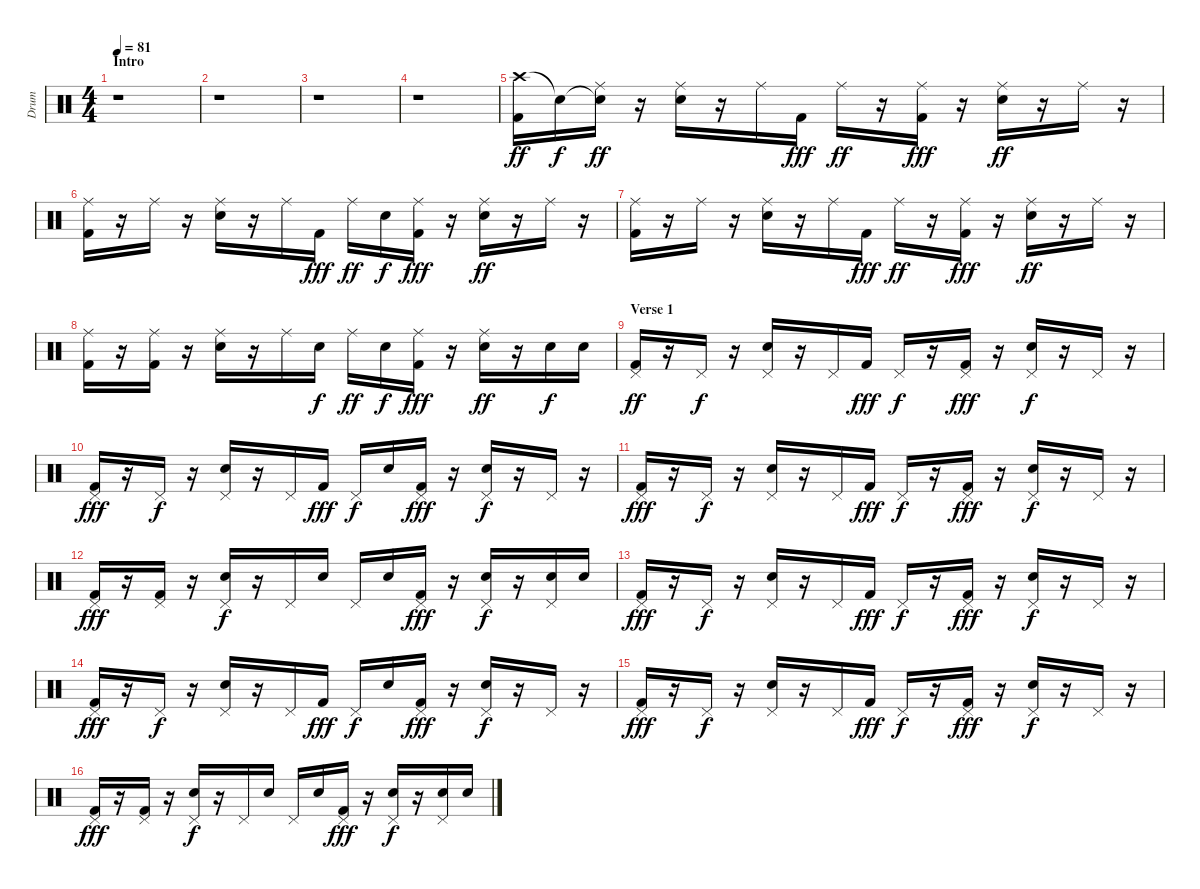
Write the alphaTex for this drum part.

\track ("Drum" "Drum") {instrument percussion}
\staff {score}
\articulation defaults
\ts (4 4)
\section ("" "Intro ")
\tempo 81
\clef neutral
\ks c
r.1{dy ff} |
r.1 |
r.1 |
r.1 |
("Crash high (hit)" "Kick (hit) 2").16 "Snare (hit)"{t}.16{dy f} ("Snare (hit)"{t} "Ride (middle)").16{dy ff} r.16 ("Ride (middle)" "Electric Snare (hit)").16 r.16 "Ride (middle)".16 "Kick (hit) 2".16{dy fff} "Ride (middle)".16{dy ff} r.16 ("Ride (middle)" "Kick (hit) 2").16{dy fff} r.16 ("Ride (middle)" "Electric Snare (hit)").16{dy ff} r.16 "Ride (middle)".16 r.16 |
("Ride (middle)" "Kick (hit) 2").16 r.16 "Ride (middle)".16 r.16 ("Ride (middle)" "Electric Snare (hit)").16 r.16 "Ride (middle)".16 "Kick (hit) 2".16{dy fff} "Ride (middle)".16{dy ff} "Electric Snare (hit)".16{dy f} ("Ride (middle)" "Kick (hit) 2").16{dy fff} r.16 ("Ride (middle)" "Electric Snare (hit)").16{dy ff} r.16 "Ride (middle)".16 r.16 |
("Ride (middle)" "Kick (hit) 2").16 r.16 "Ride (middle)".16 r.16 ("Ride (middle)" "Electric Snare (hit)").16 r.16 "Ride (middle)".16 "Kick (hit) 2".16{dy fff} "Ride (middle)".16{dy ff} r.16 ("Ride (middle)" "Kick (hit) 2").16{dy fff} r.16 ("Ride (middle)" "Electric Snare (hit)").16{dy ff} r.16 "Ride (middle)".16 r.16 |
("Ride (middle)" "Kick (hit) 2").16 r.16 ("Ride (middle)" "Kick (hit) 2").16 r.16 ("Ride (middle)" "Electric Snare (hit)").16 r.16 "Ride (middle)".16 "Electric Snare (hit)".16{dy f} "Ride (middle)".16{dy ff} "Electric Snare (hit)".16{dy f} ("Ride (middle)" "Kick (hit) 2").16{dy fff} r.16 ("Ride (middle)" "Electric Snare (hit)").16{dy ff} r.16 "Electric Snare (hit)".16{dy f} "Electric Snare (hit)".16 |
\section ("" "Verse 1")
("Pedal Hi-Hat (hit)" "Kick (hit) 2").16{dy ff} r.16 "Pedal Hi-Hat (hit)".16{dy f} r.16 ("Pedal Hi-Hat (hit)" "Electric Snare (hit)").16 r.16 "Pedal Hi-Hat (hit)".16 "Kick (hit) 2".16{dy fff} "Pedal Hi-Hat (hit)".16{dy f} r.16 ("Pedal Hi-Hat (hit)" "Kick (hit) 2").16{dy fff} r.16 ("Pedal Hi-Hat (hit)" "Electric Snare (hit)").16{dy f} r.16 "Pedal Hi-Hat (hit)".16 r.16 |
("Pedal Hi-Hat (hit)" "Kick (hit) 2").16{dy fff} r.16 "Pedal Hi-Hat (hit)".16{dy f} r.16 ("Pedal Hi-Hat (hit)" "Electric Snare (hit)").16 r.16 "Pedal Hi-Hat (hit)".16 "Kick (hit) 2".16{dy fff} "Pedal Hi-Hat (hit)".16{dy f} "Electric Snare (hit)".16 ("Pedal Hi-Hat (hit)" "Kick (hit) 2").16{dy fff} r.16 ("Pedal Hi-Hat (hit)" "Electric Snare (hit)").16{dy f} r.16 "Pedal Hi-Hat (hit)".16 r.16 |
("Pedal Hi-Hat (hit)" "Kick (hit) 2").16{dy fff} r.16 "Pedal Hi-Hat (hit)".16{dy f} r.16 ("Pedal Hi-Hat (hit)" "Electric Snare (hit)").16 r.16 "Pedal Hi-Hat (hit)".16 "Kick (hit) 2".16{dy fff} "Pedal Hi-Hat (hit)".16{dy f} r.16 ("Pedal Hi-Hat (hit)" "Kick (hit) 2").16{dy fff} r.16 ("Pedal Hi-Hat (hit)" "Electric Snare (hit)").16{dy f} r.16 "Pedal Hi-Hat (hit)".16 r.16 |
("Pedal Hi-Hat (hit)" "Kick (hit) 2").16{dy fff} r.16 ("Pedal Hi-Hat (hit)" "Kick (hit) 2").16 r.16 ("Pedal Hi-Hat (hit)" "Electric Snare (hit)").16{dy f} r.16 "Pedal Hi-Hat (hit)".16 "Electric Snare (hit)".16 "Pedal Hi-Hat (hit)".16 "Electric Snare (hit)".16 ("Pedal Hi-Hat (hit)" "Kick (hit) 2").16{dy fff} r.16 ("Pedal Hi-Hat (hit)" "Electric Snare (hit)").16{dy f} r.16 ("Pedal Hi-Hat (hit)" "Electric Snare (hit)").16 "Electric Snare (hit)".16 |
("Pedal Hi-Hat (hit)" "Kick (hit) 2").16{dy fff} r.16 "Pedal Hi-Hat (hit)".16{dy f} r.16 ("Pedal Hi-Hat (hit)" "Electric Snare (hit)").16 r.16 "Pedal Hi-Hat (hit)".16 "Kick (hit) 2".16{dy fff} "Pedal Hi-Hat (hit)".16{dy f} r.16 ("Pedal Hi-Hat (hit)" "Kick (hit) 2").16{dy fff} r.16 ("Pedal Hi-Hat (hit)" "Electric Snare (hit)").16{dy f} r.16 "Pedal Hi-Hat (hit)".16 r.16 |
("Pedal Hi-Hat (hit)" "Kick (hit) 2").16{dy fff} r.16 "Pedal Hi-Hat (hit)".16{dy f} r.16 ("Pedal Hi-Hat (hit)" "Electric Snare (hit)").16 r.16 "Pedal Hi-Hat (hit)".16 "Kick (hit) 2".16{dy fff} "Pedal Hi-Hat (hit)".16{dy f} "Electric Snare (hit)".16 ("Pedal Hi-Hat (hit)" "Kick (hit) 2").16{dy fff} r.16 ("Pedal Hi-Hat (hit)" "Electric Snare (hit)").16{dy f} r.16 "Pedal Hi-Hat (hit)".16 r.16 |
("Pedal Hi-Hat (hit)" "Kick (hit) 2").16{dy fff} r.16 "Pedal Hi-Hat (hit)".16{dy f} r.16 ("Pedal Hi-Hat (hit)" "Electric Snare (hit)").16 r.16 "Pedal Hi-Hat (hit)".16 "Kick (hit) 2".16{dy fff} "Pedal Hi-Hat (hit)".16{dy f} r.16 ("Pedal Hi-Hat (hit)" "Kick (hit) 2").16{dy fff} r.16 ("Pedal Hi-Hat (hit)" "Electric Snare (hit)").16{dy f} r.16 "Pedal Hi-Hat (hit)".16 r.16 |
("Pedal Hi-Hat (hit)" "Kick (hit) 2").16{dy fff} r.16 ("Pedal Hi-Hat (hit)" "Kick (hit) 2").16 r.16 ("Pedal Hi-Hat (hit)" "Electric Snare (hit)").16{dy f} r.16 "Pedal Hi-Hat (hit)".16 "Electric Snare (hit)".16 "Pedal Hi-Hat (hit)".16 "Electric Snare (hit)".16 ("Pedal Hi-Hat (hit)" "Kick (hit) 2").16{dy fff} r.16 ("Pedal Hi-Hat (hit)" "Electric Snare (hit)").16{dy f} r.16 ("Pedal Hi-Hat (hit)" "Electric Snare (hit)").16 "Electric Snare (hit)".16
